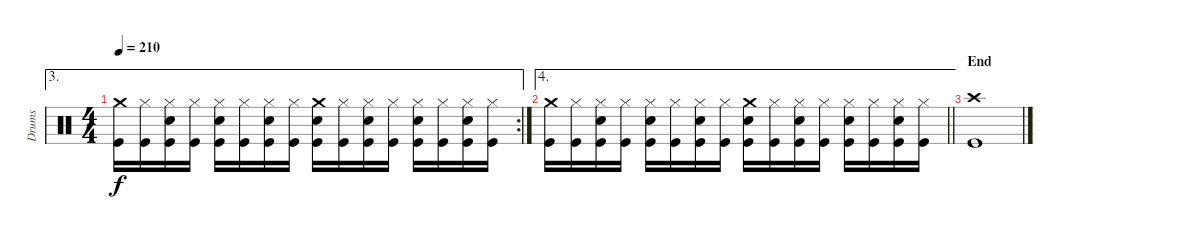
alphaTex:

\track ("Drums" "Drums") {instrument percussion}
\staff {score}
\articulation defaults
\ae 3
\rc 2
\ts (4 4)
\tempo 210
\clef neutral
\ks c
("Crash medium (hit)" "Kick (hit)").16{dy f} ("Hi-Hat (closed)" "Kick (hit)").16 ("Hi-Hat (closed)" "Snare (hit) 2" "Kick (hit)").16 ("Hi-Hat (closed)" "Kick (hit)").16 ("Hi-Hat (closed)" "Snare (hit) 2" "Kick (hit)").16 ("Hi-Hat (closed)" "Kick (hit)").16 ("Hi-Hat (closed)" "Snare (hit) 2" "Kick (hit)").16 ("Hi-Hat (closed)" "Kick (hit)").16 ("Crash medium (hit)" "Snare (hit) 2" "Kick (hit)").16 ("Hi-Hat (closed)" "Kick (hit)").16 ("Hi-Hat (closed)" "Snare (hit) 2" "Kick (hit)").16 ("Hi-Hat (closed)" "Kick (hit)").16 ("Hi-Hat (closed)" "Snare (hit) 2" "Kick (hit)").16 ("Hi-Hat (closed)" "Kick (hit)").16 ("Hi-Hat (closed)" "Snare (hit) 2" "Kick (hit)").16 ("Hi-Hat (closed)" "Kick (hit)").16 |
\ae 4
\barLineRight lightlight
("Crash medium (hit)" "Kick (hit)").16 ("Hi-Hat (closed)" "Kick (hit)").16 ("Hi-Hat (closed)" "Snare (hit) 2" "Kick (hit)").16 ("Hi-Hat (closed)" "Kick (hit)").16 ("Hi-Hat (closed)" "Snare (hit) 2" "Kick (hit)").16 ("Hi-Hat (closed)" "Kick (hit)").16 ("Hi-Hat (closed)" "Snare (hit) 2" "Kick (hit)").16 ("Hi-Hat (closed)" "Kick (hit)").16 ("Crash medium (hit)" "Snare (hit) 2" "Kick (hit)").16 ("Hi-Hat (closed)" "Kick (hit)").16 ("Hi-Hat (closed)" "Snare (hit) 2" "Kick (hit)").16 ("Hi-Hat (closed)" "Kick (hit)").16 ("Hi-Hat (closed)" "Snare (hit) 2" "Kick (hit)").16 ("Hi-Hat (closed)" "Kick (hit)").16 ("Hi-Hat (closed)" "Snare (hit) 2" "Kick (hit)").16 ("Hi-Hat (closed)" "Kick (hit)").16 |
\section ("" "End")
("Crash high (hit)" "Kick (hit)").1
